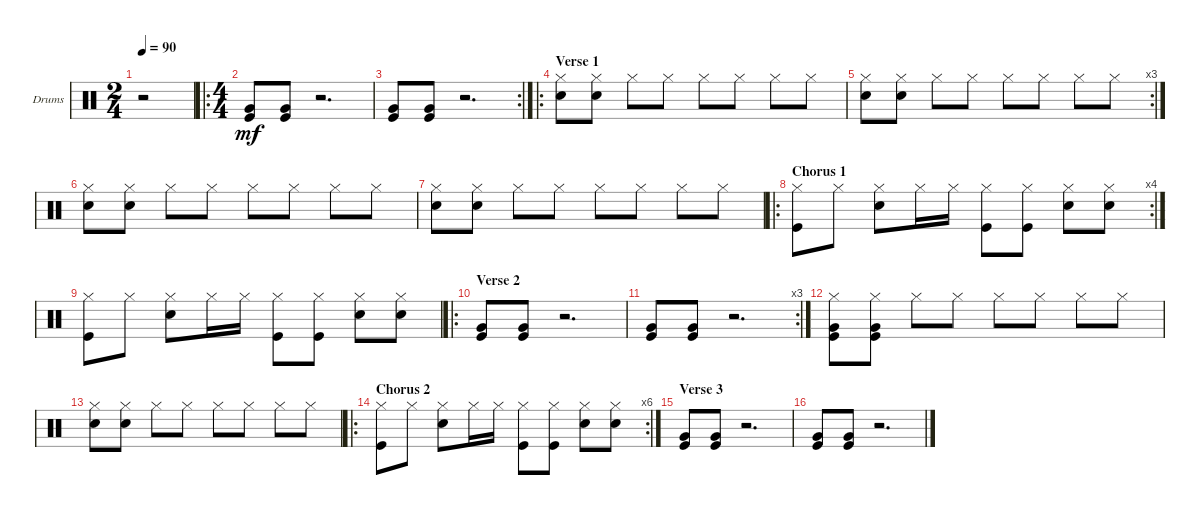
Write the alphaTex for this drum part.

\bracketExtendMode groupsimilarinstruments
\firstSystemTrackNameOrientation horizontal
\otherSystemsTrackNameOrientation horizontal
\track ("Drumkit" "Drums") {instrument percussion}
\staff {score}
\articulation defaults
\ts (2 4)
\tempo 90
\clef neutral
\ks c
r.2{dy mf} |
\ro
\ts (4 4)
\scale
0.472222 ("Kick (hit)" "Very Low Tom (hit)").8 ("Kick (hit)" "Very Low Tom (hit)").8 r.2{d} |
\rc 2
\scale
0.263889 ("Kick (hit)" "Very Low Tom (hit)").8 ("Kick (hit)" "Very Low Tom (hit)").8 r.2{d} |
\ro
\section ("" "Verse 1")
\scale
0.263889 ("Snare (hit) 2" "Hi-Hat (closed)").8 ("Snare (hit) 2" "Hi-Hat (closed)").8 "Hi-Hat (closed)".8 "Hi-Hat (closed)".8 "Hi-Hat (closed)".8 "Hi-Hat (closed)".8 "Hi-Hat (closed)".8 "Hi-Hat (closed)".8 |
\rc 3
\scale
0.333333 ("Snare (hit) 2" "Hi-Hat (closed)").8 ("Snare (hit) 2" "Hi-Hat (closed)").8 "Hi-Hat (closed)".8 "Hi-Hat (closed)".8 "Hi-Hat (closed)".8 "Hi-Hat (closed)".8 "Hi-Hat (closed)".8 "Hi-Hat (closed)".8 |
("Snare (hit) 2" "Hi-Hat (closed)").8 ("Snare (hit) 2" "Hi-Hat (closed)").8 "Hi-Hat (closed)".8 "Hi-Hat (closed)".8 "Hi-Hat (closed)".8 "Hi-Hat (closed)".8 "Hi-Hat (closed)".8 "Hi-Hat (closed)".8 |
("Snare (hit) 2" "Hi-Hat (closed)").8 ("Snare (hit) 2" "Hi-Hat (closed)").8 "Hi-Hat (closed)".8 "Hi-Hat (closed)".8 "Hi-Hat (closed)".8 "Hi-Hat (closed)".8 "Hi-Hat (closed)".8 "Hi-Hat (closed)".8 |
\ro
\rc 4
\section ("" "Chorus 1")
\scale
0.333333 ("Hi-Hat (closed)" "Kick (hit)").8 "Hi-Hat (closed)".8 ("Hi-Hat (closed)" "Snare (hit) 2").8 "Hi-Hat (closed)".16 "Hi-Hat (closed)".16 ("Hi-Hat (closed)" "Kick (hit)").8 ("Hi-Hat (closed)" "Kick (hit)").8 ("Hi-Hat (closed)" "Snare (hit) 2").8 ("Hi-Hat (closed)" "Snare (hit) 2").8 |
("Hi-Hat (closed)" "Kick (hit)").8 "Hi-Hat (closed)".8 ("Hi-Hat (closed)" "Snare (hit) 2").8 "Hi-Hat (closed)".16 "Hi-Hat (closed)".16 ("Hi-Hat (closed)" "Kick (hit)").8 ("Hi-Hat (closed)" "Kick (hit)").8 ("Hi-Hat (closed)" "Snare (hit) 2").8 ("Hi-Hat (closed)" "Snare (hit) 2").8 |
\ro
\section ("" "Verse 2")
("Kick (hit)" "Very Low Tom (hit)").8 ("Kick (hit)" "Very Low Tom (hit)").8 r.2{d} |
\rc 3
("Kick (hit)" "Very Low Tom (hit)").8 ("Kick (hit)" "Very Low Tom (hit)").8 r.2{d} |
("Kick (hit)" "Very Low Tom (hit)" "Hi-Hat (closed)").8 ("Kick (hit)" "Very Low Tom (hit)" "Hi-Hat (closed)").8 "Hi-Hat (closed)".8 "Hi-Hat (closed)".8 "Hi-Hat (closed)".8 "Hi-Hat (closed)".8 "Hi-Hat (closed)".8 "Hi-Hat (closed)".8 |
("Snare (hit) 2" "Hi-Hat (closed)").8 ("Snare (hit) 2" "Hi-Hat (closed)").8 "Hi-Hat (closed)".8 "Hi-Hat (closed)".8 "Hi-Hat (closed)".8 "Hi-Hat (closed)".8 "Hi-Hat (closed)".8 "Hi-Hat (closed)".8 |
\ro
\rc 6
\section ("" "Chorus 2")
("Hi-Hat (closed)" "Kick (hit)").8 "Hi-Hat (closed)".8 ("Hi-Hat (closed)" "Snare (hit) 2").8 "Hi-Hat (closed)".16 "Hi-Hat (closed)".16 ("Hi-Hat (closed)" "Kick (hit)").8 ("Hi-Hat (closed)" "Kick (hit)").8 ("Hi-Hat (closed)" "Snare (hit) 2").8 ("Hi-Hat (closed)" "Snare (hit) 2").8 |
\section ("" "Verse 3")
("Kick (hit)" "Very Low Tom (hit)").8 ("Kick (hit)" "Very Low Tom (hit)").8 r.2{d} |
("Kick (hit)" "Very Low Tom (hit)").8 ("Kick (hit)" "Very Low Tom (hit)").8 r.2{d}
